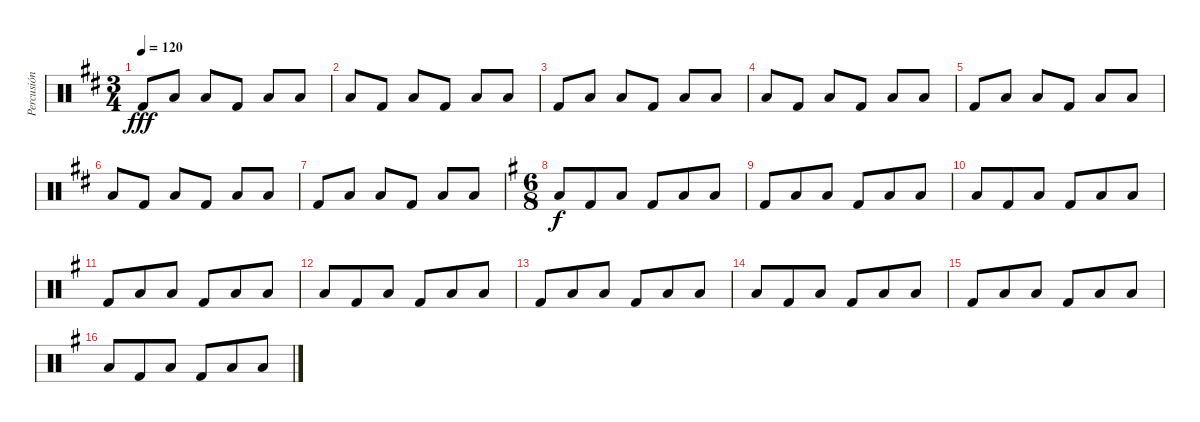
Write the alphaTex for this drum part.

\track ("Percusión" "Percusión") {instrument percussion}
\staff {score}
\articulation defaults
\ts (3 4)
\tempo 120
\clef neutral
\ks d "Kick (hit) 2".8{dy fff} "Low Tom (hit)".8 "Low Tom (hit)".8 "Kick (hit) 2".8 "Low Tom (hit)".8 "Low Tom (hit)".8
|
"Low Tom (hit)".8 "Kick (hit) 2".8 "Low Tom (hit)".8 "Kick (hit) 2".8 "Low Tom (hit)".8 "Low Tom (hit)".8 |
"Kick (hit) 2".8 "Low Tom (hit)".8 "Low Tom (hit)".8 "Kick (hit) 2".8 "Low Tom (hit)".8 "Low Tom (hit)".8 |
"Low Tom (hit)".8 "Kick (hit) 2".8 "Low Tom (hit)".8 "Kick (hit) 2".8 "Low Tom (hit)".8 "Low Tom (hit)".8 |
"Kick (hit) 2".8 "Low Tom (hit)".8 "Low Tom (hit)".8 "Kick (hit) 2".8 "Low Tom (hit)".8 "Low Tom (hit)".8 |
"Low Tom (hit)".8 "Kick (hit) 2".8 "Low Tom (hit)".8 "Kick (hit) 2".8 "Low Tom (hit)".8 "Low Tom (hit)".8 |
"Kick (hit) 2".8 "Low Tom (hit)".8 "Low Tom (hit)".8 "Kick (hit) 2".8 "Low Tom (hit)".8 "Low Tom (hit)".8 |
\ts (6 8)
\ks g "Low Tom (hit)".8{dy f} "Kick (hit) 2".8 "Low Tom (hit)".8 "Kick (hit) 2".8 "Low Tom (hit)".8 "Low Tom (hit)".8
|
"Kick (hit) 2".8 "Low Tom (hit)".8 "Low Tom (hit)".8 "Kick (hit) 2".8 "Low Tom (hit)".8 "Low Tom (hit)".8 |
"Low Tom (hit)".8 "Kick (hit) 2".8 "Low Tom (hit)".8 "Kick (hit) 2".8 "Low Tom (hit)".8 "Low Tom (hit)".8 |
"Kick (hit) 2".8 "Low Tom (hit)".8 "Low Tom (hit)".8 "Kick (hit) 2".8 "Low Tom (hit)".8 "Low Tom (hit)".8 |
"Low Tom (hit)".8 "Kick (hit) 2".8 "Low Tom (hit)".8 "Kick (hit) 2".8 "Low Tom (hit)".8 "Low Tom (hit)".8 |
"Kick (hit) 2".8 "Low Tom (hit)".8 "Low Tom (hit)".8 "Kick (hit) 2".8 "Low Tom (hit)".8 "Low Tom (hit)".8 |
"Low Tom (hit)".8 "Kick (hit) 2".8 "Low Tom (hit)".8 "Kick (hit) 2".8 "Low Tom (hit)".8 "Low Tom (hit)".8 |
"Kick (hit) 2".8 "Low Tom (hit)".8 "Low Tom (hit)".8 "Kick (hit) 2".8 "Low Tom (hit)".8 "Low Tom (hit)".8 |
"Low Tom (hit)".8 "Kick (hit) 2".8 "Low Tom (hit)".8 "Kick (hit) 2".8 "Low Tom (hit)".8 "Low Tom (hit)".8
